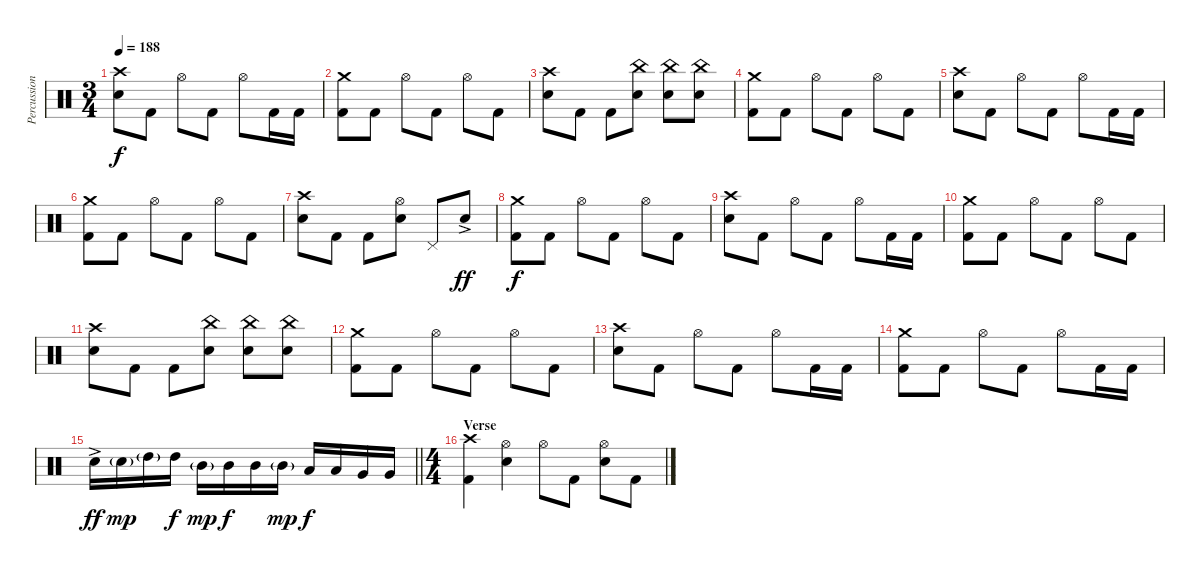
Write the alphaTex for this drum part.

\track ("Percussion" "Percussion") {instrument percussion}
\staff {score}
\articulation defaults
\ts (3 4)
\tempo 188
\clef neutral
\ks c
("Crash high (hit)" "Electric Snare (hit)").8{dy f} "Kick (hit) 2".8 "Hi-Hat (open)".8 "Kick (hit) 2".8 "Hi-Hat (open)".8 "Kick (hit) 2".16 "Kick (hit) 2".16 |
("Crash medium (hit)" "Kick (hit) 2").8 "Kick (hit) 2".8 "Hi-Hat (open)".8 "Kick (hit) 2".8 "Hi-Hat (open)".8 "Kick (hit) 2".8 |
("Crash high (hit)" "Electric Snare (hit)").8 "Kick (hit) 2".8 "Kick (hit) 2".8 ("China (hit)" "Electric Snare (hit)").8 ("China (hit)" "Electric Snare (hit)").8 ("China (hit)" "Electric Snare (hit)").8 |
("Crash medium (hit)" "Kick (hit) 2").8 "Kick (hit) 2".8 "Hi-Hat (open)".8 "Kick (hit) 2".8 "Hi-Hat (open)".8 "Kick (hit) 2".8 |
("Crash high (hit)" "Electric Snare (hit)").8 "Kick (hit) 2".8 "Hi-Hat (open)".8 "Kick (hit) 2".8 "Hi-Hat (open)".8 "Kick (hit) 2".16 "Kick (hit) 2".16 |
("Crash medium (hit)" "Kick (hit) 2").8 "Kick (hit) 2".8 "Hi-Hat (open)".8 "Kick (hit) 2".8 "Hi-Hat (open)".8 "Kick (hit) 2".8 |
("Crash high (hit)" "Electric Snare (hit)").8 "Kick (hit) 2".8 "Kick (hit) 2".8 ("Hi-Hat (open)" "Electric Snare (hit)").8 "Pedal Hi-Hat (hit)".8 "Electric Snare (hit)"{ac}.8{dy ff} |
("Crash medium (hit)" "Kick (hit) 2").8{dy f} "Kick (hit) 2".8 "Hi-Hat (open)".8 "Kick (hit) 2".8 "Hi-Hat (open)".8 "Kick (hit) 2".8 |
("Crash high (hit)" "Electric Snare (hit)").8 "Kick (hit) 2".8 "Hi-Hat (open)".8 "Kick (hit) 2".8 "Hi-Hat (open)".8 "Kick (hit) 2".16 "Kick (hit) 2".16 |
("Crash medium (hit)" "Kick (hit) 2").8 "Kick (hit) 2".8 "Hi-Hat (open)".8 "Kick (hit) 2".8 "Hi-Hat (open)".8 "Kick (hit) 2".8 |
("Crash high (hit)" "Electric Snare (hit)").8 "Kick (hit) 2".8 "Kick (hit) 2".8 ("China (hit)" "Electric Snare (hit)").8 ("China (hit)" "Electric Snare (hit)").8 ("China (hit)" "Electric Snare (hit)").8 |
("Crash medium (hit)" "Kick (hit) 2").8 "Kick (hit) 2".8 "Hi-Hat (open)".8 "Kick (hit) 2".8 "Hi-Hat (open)".8 "Kick (hit) 2".8 |
("Crash high (hit)" "Electric Snare (hit)").8 "Kick (hit) 2".8 "Hi-Hat (open)".8 "Kick (hit) 2".8 "Hi-Hat (open)".8 "Kick (hit) 2".16 "Kick (hit) 2".16 |
("Crash medium (hit)" "Kick (hit) 2").8 "Kick (hit) 2".8 "Hi-Hat (open)".8 "Kick (hit) 2".8 "Hi-Hat (open)".8 "Kick (hit) 2".16 "Kick (hit) 2".16 |
\barLineRight lightlight "Electric Snare (hit)"{ac}.16{dy ff} "Electric Snare (hit)"{g}.16{dy mp} "High Tom (hit)"{g}.16 "High Tom (hit)".16{dy f} "Mid Tom (hit)"{g}.16{dy mp} "Mid Tom (hit)".16{dy f} "Mid Tom (hit)".16 "Mid Tom (hit)"{g}.16{dy mp} "Low Tom (hit)".16{dy f} "Low Tom (hit)".16 "Very Low Tom (hit)".16 "Very Low Tom (hit)".16
|
\ts (4 4)
\section ("" "Verse")
("Crash high (hit)" "Kick (hit) 2").4 ("Hi-Hat (open)" "Electric Snare (hit)").4 "Hi-Hat (open)".8 "Kick (hit) 2".8 ("Hi-Hat (open)" "Electric Snare (hit)").8 "Kick (hit) 2".8
